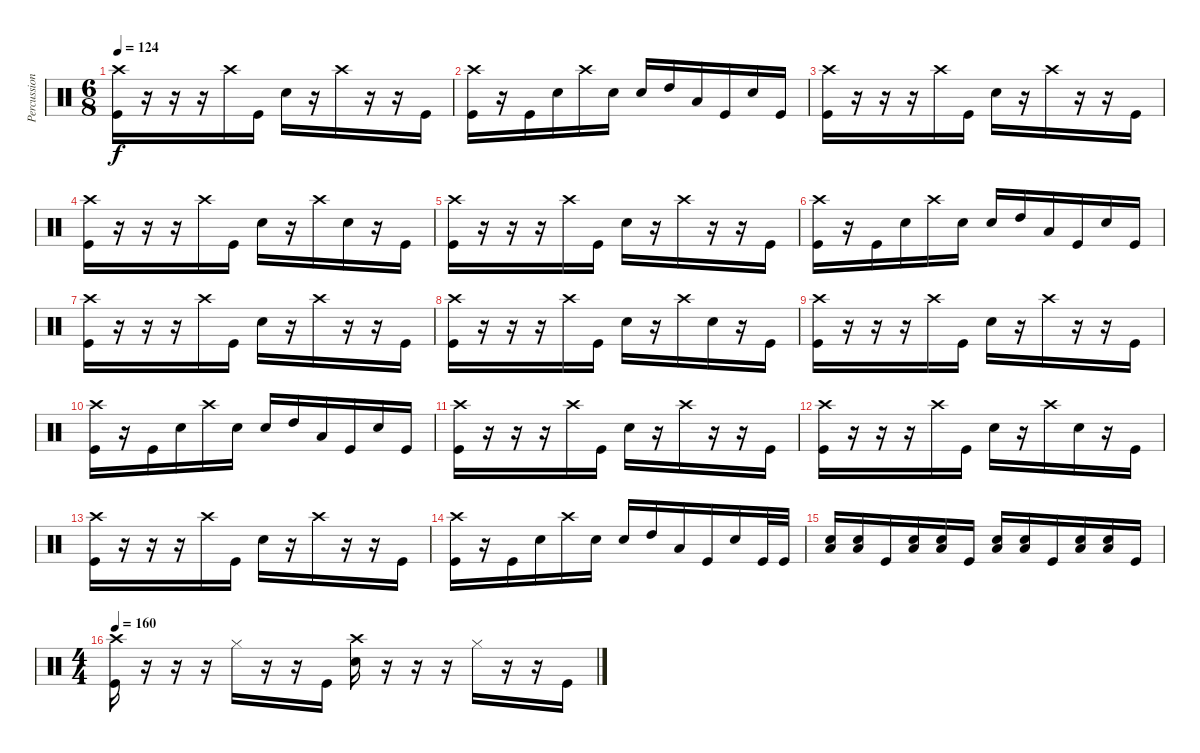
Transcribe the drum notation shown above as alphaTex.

\track ("Percussion" "Percussion") {instrument percussion}
\staff {score}
\articulation defaults
\ts (6 8)
\tempo 124
\clef neutral
\ks c
("Crash high (hit)" "Kick (hit)").16{dy f} r.16 r.16 r.16 "Crash high (hit)".16 "Kick (hit)".16 "Snare (hit) 2".16 r.16 "Crash high (hit)".16 r.16 r.16 "Kick (hit)".16 |
("Crash high (hit)" "Kick (hit)").16 r.16 "Kick (hit)".16 "Snare (hit) 2".16 "Crash high (hit)".16 "Snare (hit) 2".16 "Snare (hit) 2".16 "High Tom (hit)".16 "Low Floor Tom (hit)".16 "Kick (hit)".16 "Snare (hit) 2".16 "Kick (hit)".16 |
("Crash high (hit)" "Kick (hit)").16 r.16 r.16 r.16 "Crash high (hit)".16 "Kick (hit)".16 "Snare (hit) 2".16 r.16 "Crash high (hit)".16 r.16 r.16 "Kick (hit)".16 |
("Crash high (hit)" "Kick (hit)").16 r.16 r.16 r.16 "Crash high (hit)".16 "Kick (hit)".16 "Snare (hit) 2".16 r.16 "Crash high (hit)".16 "Snare (hit) 2".16 r.16 "Kick (hit)".16 |
("Crash high (hit)" "Kick (hit)").16 r.16 r.16 r.16 "Crash high (hit)".16 "Kick (hit)".16 "Snare (hit) 2".16 r.16 "Crash high (hit)".16 r.16 r.16 "Kick (hit)".16 |
("Crash high (hit)" "Kick (hit)").16 r.16 "Kick (hit)".16 "Snare (hit) 2".16 "Crash high (hit)".16 "Snare (hit) 2".16 "Snare (hit) 2".16 "High Tom (hit)".16 "Low Floor Tom (hit)".16 "Kick (hit)".16 "Snare (hit) 2".16 "Kick (hit)".16 |
("Crash high (hit)" "Kick (hit)").16 r.16 r.16 r.16 "Crash high (hit)".16 "Kick (hit)".16 "Snare (hit) 2".16 r.16 "Crash high (hit)".16 r.16 r.16 "Kick (hit)".16 |
("Crash high (hit)" "Kick (hit)").16 r.16 r.16 r.16 "Crash high (hit)".16 "Kick (hit)".16 "Snare (hit) 2".16 r.16 "Crash high (hit)".16 "Snare (hit) 2".16 r.16 "Kick (hit)".16 |
("Crash high (hit)" "Kick (hit)").16 r.16 r.16 r.16 "Crash high (hit)".16 "Kick (hit)".16 "Snare (hit) 2".16 r.16 "Crash high (hit)".16 r.16 r.16 "Kick (hit)".16 |
("Crash high (hit)" "Kick (hit)").16 r.16 "Kick (hit)".16 "Snare (hit) 2".16 "Crash high (hit)".16 "Snare (hit) 2".16 "Snare (hit) 2".16 "High Tom (hit)".16 "Low Floor Tom (hit)".16 "Kick (hit)".16 "Snare (hit) 2".16 "Kick (hit)".16 |
("Crash high (hit)" "Kick (hit)").16 r.16 r.16 r.16 "Crash high (hit)".16 "Kick (hit)".16 "Snare (hit) 2".16 r.16 "Crash high (hit)".16 r.16 r.16 "Kick (hit)".16 |
("Crash high (hit)" "Kick (hit)").16 r.16 r.16 r.16 "Crash high (hit)".16 "Kick (hit)".16 "Snare (hit) 2".16 r.16 "Crash high (hit)".16 "Snare (hit) 2".16 r.16 "Kick (hit)".16 |
("Crash high (hit)" "Kick (hit)").16 r.16 r.16 r.16 "Crash high (hit)".16 "Kick (hit)".16 "Snare (hit) 2".16 r.16 "Crash high (hit)".16 r.16 r.16 "Kick (hit)".16 |
("Crash high (hit)" "Kick (hit)").16 r.16 "Kick (hit)".16 "Snare (hit) 2".16 "Crash high (hit)".16 "Snare (hit) 2".16 "Snare (hit) 2".16 "High Tom (hit)".16 "Low Floor Tom (hit)".16 "Kick (hit)".16 "Snare (hit) 2".16 "Kick (hit)".32 "Kick (hit)".32 |
("Snare (hit) 2" "Low Floor Tom (hit)").16 ("Snare (hit) 2" "Low Floor Tom (hit)").16 "Kick (hit)".16 ("Snare (hit) 2" "Low Floor Tom (hit)").16 ("Snare (hit) 2" "Low Floor Tom (hit)").16 "Kick (hit)".16 ("Snare (hit) 2" "Low Floor Tom (hit)").16 ("Snare (hit) 2" "Low Floor Tom (hit)").16 "Kick (hit)".16 ("Snare (hit) 2" "Low Floor Tom (hit)").16 ("Snare (hit) 2" "Low Floor Tom (hit)").16 "Kick (hit)".16 |
\ts (4 4)
\tempo 160
("Kick (hit)" "Crash high (hit)").16 r.16 r.16 r.16 "Hi-Hat (closed)".16 r.16 r.16 "Kick (hit)".16 ("Crash high (hit)" "Snare (hit) 2").16 r.16 r.16 r.16 "Hi-Hat (closed)".16 r.16 r.16 "Kick (hit)".16
